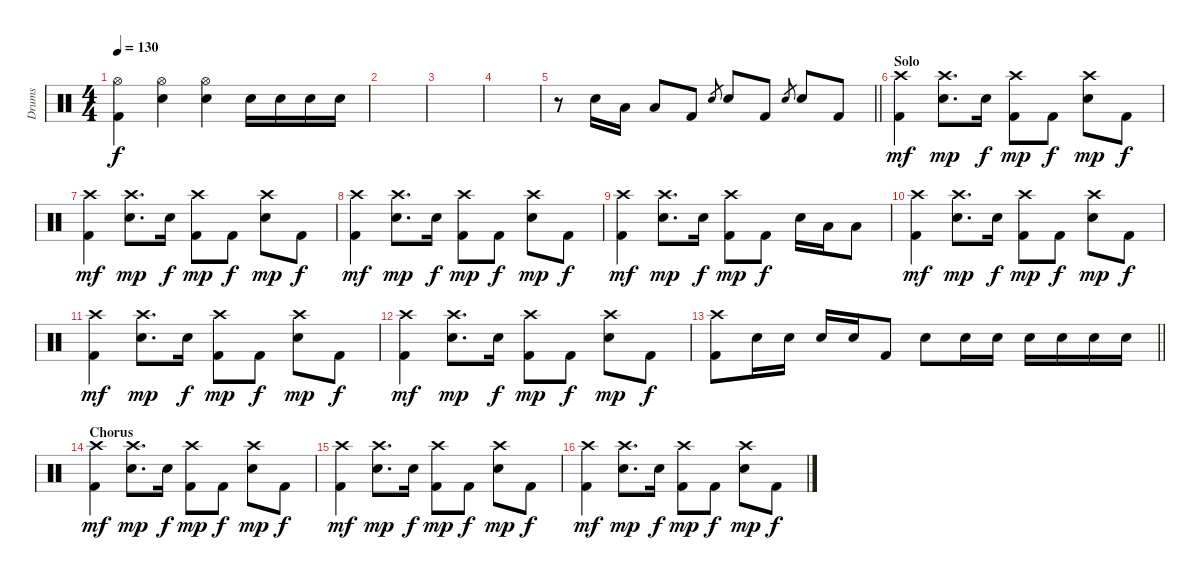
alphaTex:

\track ("Drums" "Drums") {instrument percussion}
\staff {score}
\articulation defaults
\ts (4 4)
\tempo 130
\clef neutral
\ks c
("Hi-Hat (open)" "Kick (hit) 2").4{dy f} ("Hi-Hat (open)" "Snare (hit) 2").4 ("Hi-Hat (open)" "Snare (hit) 2").4 "Snare (hit) 2".16 "Snare (hit) 2".16 "Snare (hit) 2".16 "Snare (hit) 2".16 |
|
|
|
\barLineRight lightlight
r.8 "Snare (hit) 2".16 "Low Tom (hit)".16 "Low Floor Tom (hit)".8 "Kick (hit) 2".8 "Snare (hit) 2".8{gr} "Snare (hit) 2".8 "Kick (hit) 2".8 "Snare (hit) 2".8{gr} "Snare (hit) 2".8 "Kick (hit) 2".8 |
\section ("" "Solo")
("Crash high (hit)" "Kick (hit) 2").4{dy mf} ("Crash high (hit)" "Snare (hit) 2").8{d dy mp} "Snare (hit) 2".16{dy f} ("Crash high (hit)" "Kick (hit) 2").8{dy mp} "Kick (hit) 2".8{dy f} ("Crash high (hit)" "Snare (hit) 2").8{dy mp} "Kick (hit) 2".8{dy f} |
("Crash high (hit)" "Kick (hit) 2").4{dy mf} ("Crash high (hit)" "Snare (hit) 2").8{d dy mp} "Snare (hit) 2".16{dy f} ("Crash high (hit)" "Kick (hit) 2").8{dy mp} "Kick (hit) 2".8{dy f} ("Crash high (hit)" "Snare (hit) 2").8{dy mp} "Kick (hit) 2".8{dy f} |
("Crash high (hit)" "Kick (hit) 2").4{dy mf} ("Crash high (hit)" "Snare (hit) 2").8{d dy mp} "Snare (hit) 2".16{dy f} ("Crash high (hit)" "Kick (hit) 2").8{dy mp} "Kick (hit) 2".8{dy f} ("Crash high (hit)" "Snare (hit) 2").8{dy mp} "Kick (hit) 2".8{dy f} |
("Crash high (hit)" "Kick (hit) 2").4{dy mf} ("Crash high (hit)" "Snare (hit) 2").8{d dy mp} "Snare (hit) 2".16{dy f} ("Crash high (hit)" "Kick (hit) 2").8{dy mp} "Kick (hit) 2".8{dy f} "Snare (hit) 2".16 "Low Tom (hit)".16 "Low Floor Tom (hit)".8 |
("Crash high (hit)" "Kick (hit) 2").4{dy mf} ("Crash high (hit)" "Snare (hit) 2").8{d dy mp} "Snare (hit) 2".16{dy f} ("Crash high (hit)" "Kick (hit) 2").8{dy mp} "Kick (hit) 2".8{dy f} ("Crash high (hit)" "Snare (hit) 2").8{dy mp} "Kick (hit) 2".8{dy f} |
("Crash high (hit)" "Kick (hit) 2").4{dy mf} ("Crash high (hit)" "Snare (hit) 2").8{d dy mp} "Snare (hit) 2".16{dy f} ("Crash high (hit)" "Kick (hit) 2").8{dy mp} "Kick (hit) 2".8{dy f} ("Crash high (hit)" "Snare (hit) 2").8{dy mp} "Kick (hit) 2".8{dy f} |
("Crash high (hit)" "Kick (hit) 2").4{dy mf} ("Crash high (hit)" "Snare (hit) 2").8{d dy mp} "Snare (hit) 2".16{dy f} ("Crash high (hit)" "Kick (hit) 2").8{dy mp} "Kick (hit) 2".8{dy f} ("Crash high (hit)" "Snare (hit) 2").8{dy mp} "Kick (hit) 2".8{dy f} |
\barLineRight lightlight
("Crash high (hit)" "Kick (hit) 2").8 "Snare (hit) 2".16 "Snare (hit) 2".16 "Snare (hit) 2".16 "Snare (hit) 2".16 "Kick (hit) 2".8 "Snare (hit) 2".8 "Snare (hit) 2".16 "Snare (hit) 2".16 "Snare (hit) 2".16 "Snare (hit) 2".16 "Snare (hit) 2".16 "Snare (hit) 2".16 |
\section ("" "Chorus")
("Crash high (hit)" "Kick (hit) 2").4{dy mf} ("Crash high (hit)" "Snare (hit) 2").8{d dy mp} "Snare (hit) 2".16{dy f} ("Crash high (hit)" "Kick (hit) 2").8{dy mp} "Kick (hit) 2".8{dy f} ("Crash high (hit)" "Snare (hit) 2").8{dy mp} "Kick (hit) 2".8{dy f} |
("Crash high (hit)" "Kick (hit) 2").4{dy mf} ("Crash high (hit)" "Snare (hit) 2").8{d dy mp} "Snare (hit) 2".16{dy f} ("Crash high (hit)" "Kick (hit) 2").8{dy mp} "Kick (hit) 2".8{dy f} ("Crash high (hit)" "Snare (hit) 2").8{dy mp} "Kick (hit) 2".8{dy f} |
("Crash high (hit)" "Kick (hit) 2").4{dy mf} ("Crash high (hit)" "Snare (hit) 2").8{d dy mp} "Snare (hit) 2".16{dy f} ("Crash high (hit)" "Kick (hit) 2").8{dy mp} "Kick (hit) 2".8{dy f} ("Crash high (hit)" "Snare (hit) 2").8{dy mp} "Kick (hit) 2".8{dy f}
